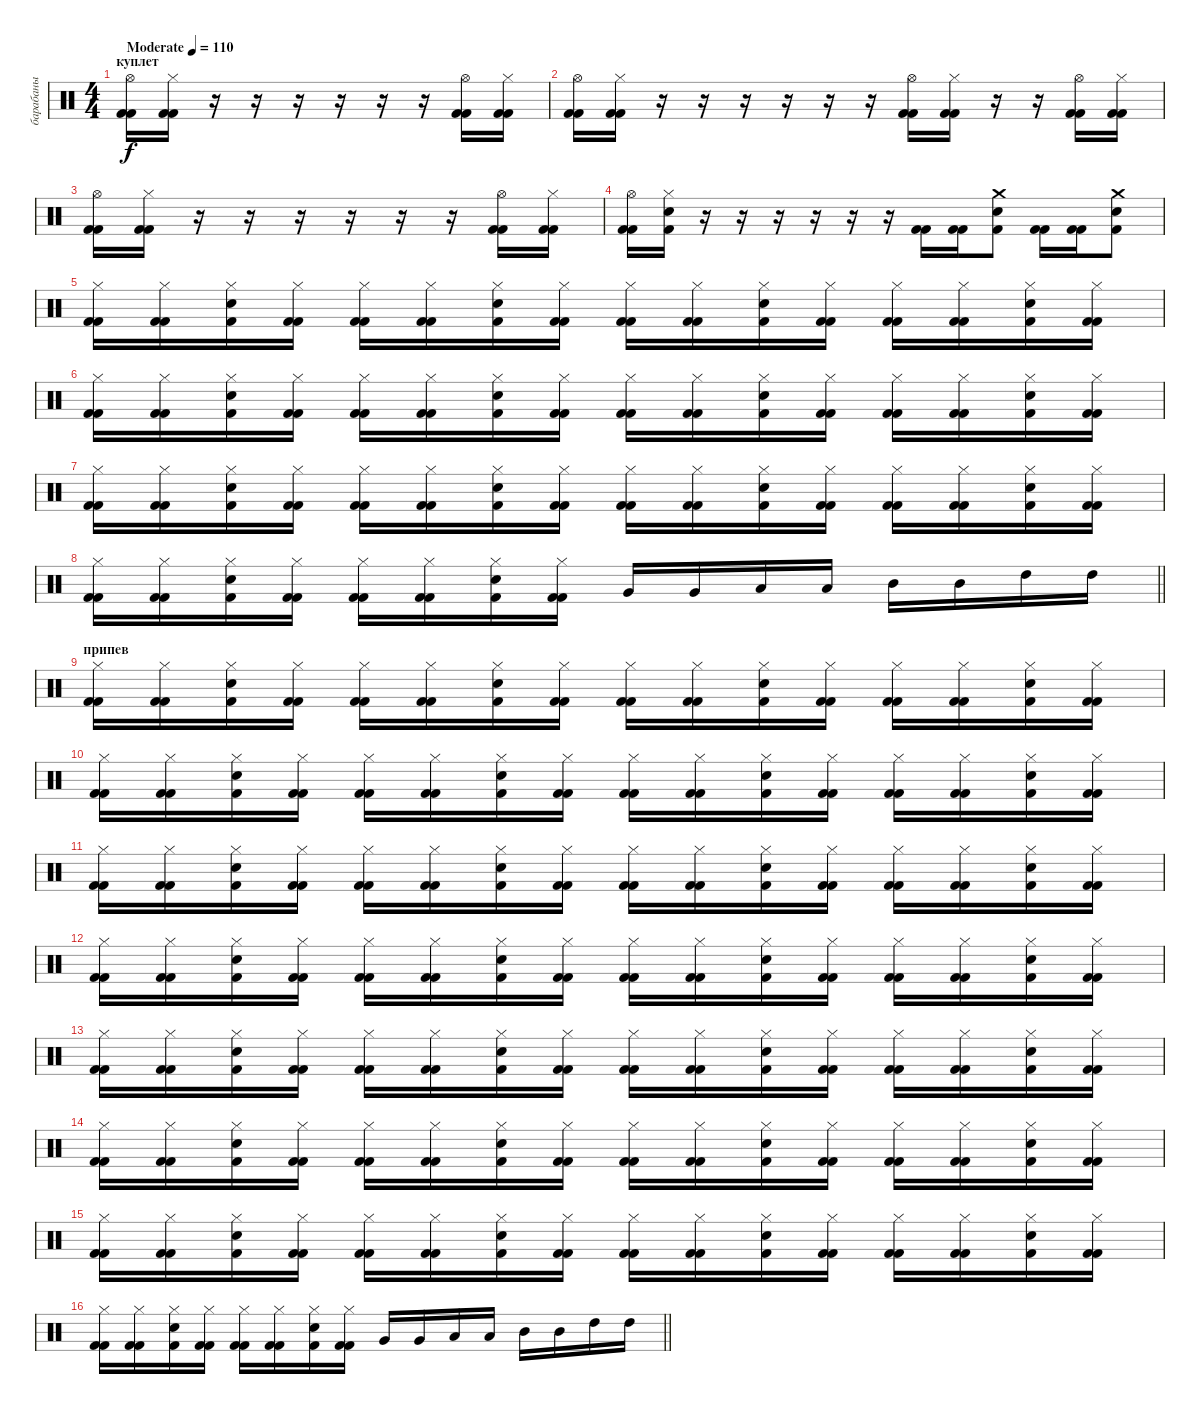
\track ("барабаны" "барабаны") {instrument percussion}
\staff {score}
\articulation defaults
\ts (4 4)
\section ("" "куплет")
\tempo (110 "Moderate")
\clef neutral
\ks c
("Hi-Hat (open)" "Kick (hit) 2" "Kick (hit) 2").16{dy f} ("Hi-Hat (closed)" "Kick (hit) 2" "Kick (hit) 2").16 r.16 r.16 r.16 r.16 r.16 r.16 ("Hi-Hat (open)" "Kick (hit) 2" "Kick (hit) 2").16 ("Hi-Hat (closed)" "Kick (hit) 2" "Kick (hit) 2").16 |
("Hi-Hat (open)" "Kick (hit) 2" "Kick (hit) 2").16 ("Hi-Hat (closed)" "Kick (hit) 2" "Kick (hit) 2").16 r.16 r.16 r.16 r.16 r.16 r.16 ("Hi-Hat (open)" "Kick (hit) 2" "Kick (hit) 2").16 ("Hi-Hat (closed)" "Kick (hit) 2" "Kick (hit) 2").16 r.16 r.16 ("Hi-Hat (open)" "Kick (hit) 2" "Kick (hit) 2").16 ("Hi-Hat (closed)" "Kick (hit) 2" "Kick (hit) 2").16 |
("Hi-Hat (open)" "Kick (hit) 2" "Kick (hit) 2").16 ("Hi-Hat (closed)" "Kick (hit) 2" "Kick (hit) 2").16 r.16 r.16 r.16 r.16 r.16 r.16 ("Hi-Hat (open)" "Kick (hit) 2" "Kick (hit) 2").16 ("Hi-Hat (closed)" "Kick (hit) 2" "Kick (hit) 2").16 |
("Hi-Hat (open)" "Kick (hit) 2" "Kick (hit) 2").16 ("Hi-Hat (closed)" "Kick (hit) 2" "Snare (hit) 2").16 r.16 r.16 r.16 r.16 r.16 r.16 ("Kick (hit) 2" "Kick (hit) 2").16 ("Kick (hit) 2" "Kick (hit) 2").16 ("Crash medium (hit)" "Snare (hit) 2" "Kick (hit) 2").8 ("Kick (hit) 2" "Kick (hit) 2").16 ("Kick (hit) 2" "Kick (hit) 2").16 ("Crash medium (hit)" "Snare (hit) 2" "Kick (hit) 2").8 |
("Hi-Hat (closed)" "Kick (hit) 2" "Kick (hit) 2").16 ("Hi-Hat (closed)" "Kick (hit) 2" "Kick (hit) 2").16 ("Hi-Hat (closed)" "Snare (hit) 2" "Kick (hit) 2").16 ("Hi-Hat (closed)" "Kick (hit) 2" "Kick (hit) 2").16 ("Hi-Hat (closed)" "Kick (hit) 2" "Kick (hit) 2").16 ("Hi-Hat (closed)" "Kick (hit) 2" "Kick (hit) 2").16 ("Hi-Hat (closed)" "Snare (hit) 2" "Kick (hit) 2").16 ("Hi-Hat (closed)" "Kick (hit) 2" "Kick (hit) 2").16 ("Hi-Hat (closed)" "Kick (hit) 2" "Kick (hit) 2").16 ("Hi-Hat (closed)" "Kick (hit) 2" "Kick (hit) 2").16 ("Hi-Hat (closed)" "Snare (hit) 2" "Kick (hit) 2").16 ("Hi-Hat (closed)" "Kick (hit) 2" "Kick (hit) 2").16 ("Hi-Hat (closed)" "Kick (hit) 2" "Kick (hit) 2").16 ("Hi-Hat (closed)" "Kick (hit) 2" "Kick (hit) 2").16 ("Hi-Hat (closed)" "Snare (hit) 2" "Kick (hit) 2").16 ("Hi-Hat (closed)" "Kick (hit) 2" "Kick (hit) 2").16 |
("Hi-Hat (closed)" "Kick (hit) 2" "Kick (hit) 2").16 ("Hi-Hat (closed)" "Kick (hit) 2" "Kick (hit) 2").16 ("Hi-Hat (closed)" "Snare (hit) 2" "Kick (hit) 2").16 ("Hi-Hat (closed)" "Kick (hit) 2" "Kick (hit) 2").16 ("Hi-Hat (closed)" "Kick (hit) 2" "Kick (hit) 2").16 ("Hi-Hat (closed)" "Kick (hit) 2" "Kick (hit) 2").16 ("Hi-Hat (closed)" "Snare (hit) 2" "Kick (hit) 2").16 ("Hi-Hat (closed)" "Kick (hit) 2" "Kick (hit) 2").16 ("Hi-Hat (closed)" "Kick (hit) 2" "Kick (hit) 2").16 ("Hi-Hat (closed)" "Kick (hit) 2" "Kick (hit) 2").16 ("Hi-Hat (closed)" "Snare (hit) 2" "Kick (hit) 2").16 ("Hi-Hat (closed)" "Kick (hit) 2" "Kick (hit) 2").16 ("Hi-Hat (closed)" "Kick (hit) 2" "Kick (hit) 2").16 ("Hi-Hat (closed)" "Kick (hit) 2" "Kick (hit) 2").16 ("Hi-Hat (closed)" "Snare (hit) 2" "Kick (hit) 2").16 ("Hi-Hat (closed)" "Kick (hit) 2" "Kick (hit) 2").16 |
("Hi-Hat (closed)" "Kick (hit) 2" "Kick (hit) 2").16 ("Hi-Hat (closed)" "Kick (hit) 2" "Kick (hit) 2").16 ("Hi-Hat (closed)" "Snare (hit) 2" "Kick (hit) 2").16 ("Hi-Hat (closed)" "Kick (hit) 2" "Kick (hit) 2").16 ("Hi-Hat (closed)" "Kick (hit) 2" "Kick (hit) 2").16 ("Hi-Hat (closed)" "Kick (hit) 2" "Kick (hit) 2").16 ("Hi-Hat (closed)" "Snare (hit) 2" "Kick (hit) 2").16 ("Hi-Hat (closed)" "Kick (hit) 2" "Kick (hit) 2").16 ("Hi-Hat (closed)" "Kick (hit) 2" "Kick (hit) 2").16 ("Hi-Hat (closed)" "Kick (hit) 2" "Kick (hit) 2").16 ("Hi-Hat (closed)" "Snare (hit) 2" "Kick (hit) 2").16 ("Hi-Hat (closed)" "Kick (hit) 2" "Kick (hit) 2").16 ("Hi-Hat (closed)" "Kick (hit) 2" "Kick (hit) 2").16 ("Hi-Hat (closed)" "Kick (hit) 2" "Kick (hit) 2").16 ("Hi-Hat (closed)" "Snare (hit) 2" "Kick (hit) 2").16 ("Hi-Hat (closed)" "Kick (hit) 2" "Kick (hit) 2").16 |
\barLineRight lightlight
("Hi-Hat (closed)" "Kick (hit) 2" "Kick (hit) 2").16 ("Hi-Hat (closed)" "Kick (hit) 2" "Kick (hit) 2").16 ("Hi-Hat (closed)" "Snare (hit) 2" "Kick (hit) 2").16 ("Hi-Hat (closed)" "Kick (hit) 2" "Kick (hit) 2").16 ("Hi-Hat (closed)" "Kick (hit) 2" "Kick (hit) 2").16 ("Hi-Hat (closed)" "Kick (hit) 2" "Kick (hit) 2").16 ("Hi-Hat (closed)" "Snare (hit) 2" "Kick (hit) 2").16 ("Hi-Hat (closed)" "Kick (hit) 2" "Kick (hit) 2").16 "Very Low Tom (hit)".16 "Very Low Tom (hit)".16 "Low Tom (hit)".16 "Low Tom (hit)".16 "Mid Tom (hit)".16 "Mid Tom (hit)".16 "High Tom (hit)".16 "High Tom (hit)".16 |
\section ("" "припев")
("Hi-Hat (closed)" "Kick (hit) 2" "Kick (hit) 2").16 ("Hi-Hat (closed)" "Kick (hit) 2" "Kick (hit) 2").16 ("Hi-Hat (closed)" "Snare (hit) 2" "Kick (hit) 2").16 ("Hi-Hat (closed)" "Kick (hit) 2" "Kick (hit) 2").16 ("Hi-Hat (closed)" "Kick (hit) 2" "Kick (hit) 2").16 ("Hi-Hat (closed)" "Kick (hit) 2" "Kick (hit) 2").16 ("Hi-Hat (closed)" "Snare (hit) 2" "Kick (hit) 2").16 ("Hi-Hat (closed)" "Kick (hit) 2" "Kick (hit) 2").16 ("Hi-Hat (closed)" "Kick (hit) 2" "Kick (hit) 2").16 ("Hi-Hat (closed)" "Kick (hit) 2" "Kick (hit) 2").16 ("Hi-Hat (closed)" "Snare (hit) 2" "Kick (hit) 2").16 ("Hi-Hat (closed)" "Kick (hit) 2" "Kick (hit) 2").16 ("Hi-Hat (closed)" "Kick (hit) 2" "Kick (hit) 2").16 ("Hi-Hat (closed)" "Kick (hit) 2" "Kick (hit) 2").16 ("Hi-Hat (closed)" "Snare (hit) 2" "Kick (hit) 2").16 ("Hi-Hat (closed)" "Kick (hit) 2" "Kick (hit) 2").16 |
("Hi-Hat (closed)" "Kick (hit) 2" "Kick (hit) 2").16 ("Hi-Hat (closed)" "Kick (hit) 2" "Kick (hit) 2").16 ("Hi-Hat (closed)" "Snare (hit) 2" "Kick (hit) 2").16 ("Hi-Hat (closed)" "Kick (hit) 2" "Kick (hit) 2").16 ("Hi-Hat (closed)" "Kick (hit) 2" "Kick (hit) 2").16 ("Hi-Hat (closed)" "Kick (hit) 2" "Kick (hit) 2").16 ("Hi-Hat (closed)" "Snare (hit) 2" "Kick (hit) 2").16 ("Hi-Hat (closed)" "Kick (hit) 2" "Kick (hit) 2").16 ("Hi-Hat (closed)" "Kick (hit) 2" "Kick (hit) 2").16 ("Hi-Hat (closed)" "Kick (hit) 2" "Kick (hit) 2").16 ("Hi-Hat (closed)" "Snare (hit) 2" "Kick (hit) 2").16 ("Hi-Hat (closed)" "Kick (hit) 2" "Kick (hit) 2").16 ("Hi-Hat (closed)" "Kick (hit) 2" "Kick (hit) 2").16 ("Hi-Hat (closed)" "Kick (hit) 2" "Kick (hit) 2").16 ("Hi-Hat (closed)" "Snare (hit) 2" "Kick (hit) 2").16 ("Hi-Hat (closed)" "Kick (hit) 2" "Kick (hit) 2").16 |
("Hi-Hat (closed)" "Kick (hit) 2" "Kick (hit) 2").16 ("Hi-Hat (closed)" "Kick (hit) 2" "Kick (hit) 2").16 ("Hi-Hat (closed)" "Snare (hit) 2" "Kick (hit) 2").16 ("Hi-Hat (closed)" "Kick (hit) 2" "Kick (hit) 2").16 ("Hi-Hat (closed)" "Kick (hit) 2" "Kick (hit) 2").16 ("Hi-Hat (closed)" "Kick (hit) 2" "Kick (hit) 2").16 ("Hi-Hat (closed)" "Snare (hit) 2" "Kick (hit) 2").16 ("Hi-Hat (closed)" "Kick (hit) 2" "Kick (hit) 2").16 ("Hi-Hat (closed)" "Kick (hit) 2" "Kick (hit) 2").16 ("Hi-Hat (closed)" "Kick (hit) 2" "Kick (hit) 2").16 ("Hi-Hat (closed)" "Snare (hit) 2" "Kick (hit) 2").16 ("Hi-Hat (closed)" "Kick (hit) 2" "Kick (hit) 2").16 ("Hi-Hat (closed)" "Kick (hit) 2" "Kick (hit) 2").16 ("Hi-Hat (closed)" "Kick (hit) 2" "Kick (hit) 2").16 ("Hi-Hat (closed)" "Snare (hit) 2" "Kick (hit) 2").16 ("Hi-Hat (closed)" "Kick (hit) 2" "Kick (hit) 2").16 |
("Hi-Hat (closed)" "Kick (hit) 2" "Kick (hit) 2").16 ("Hi-Hat (closed)" "Kick (hit) 2" "Kick (hit) 2").16 ("Hi-Hat (closed)" "Snare (hit) 2" "Kick (hit) 2").16 ("Hi-Hat (closed)" "Kick (hit) 2" "Kick (hit) 2").16 ("Hi-Hat (closed)" "Kick (hit) 2" "Kick (hit) 2").16 ("Hi-Hat (closed)" "Kick (hit) 2" "Kick (hit) 2").16 ("Hi-Hat (closed)" "Snare (hit) 2" "Kick (hit) 2").16 ("Hi-Hat (closed)" "Kick (hit) 2" "Kick (hit) 2").16 ("Hi-Hat (closed)" "Kick (hit) 2" "Kick (hit) 2").16 ("Hi-Hat (closed)" "Kick (hit) 2" "Kick (hit) 2").16 ("Hi-Hat (closed)" "Snare (hit) 2" "Kick (hit) 2").16 ("Hi-Hat (closed)" "Kick (hit) 2" "Kick (hit) 2").16 ("Hi-Hat (closed)" "Kick (hit) 2" "Kick (hit) 2").16 ("Hi-Hat (closed)" "Kick (hit) 2" "Kick (hit) 2").16 ("Hi-Hat (closed)" "Snare (hit) 2" "Kick (hit) 2").16 ("Hi-Hat (closed)" "Kick (hit) 2" "Kick (hit) 2").16 |
("Hi-Hat (closed)" "Kick (hit) 2" "Kick (hit) 2").16 ("Hi-Hat (closed)" "Kick (hit) 2" "Kick (hit) 2").16 ("Hi-Hat (closed)" "Snare (hit) 2" "Kick (hit) 2").16 ("Hi-Hat (closed)" "Kick (hit) 2" "Kick (hit) 2").16 ("Hi-Hat (closed)" "Kick (hit) 2" "Kick (hit) 2").16 ("Hi-Hat (closed)" "Kick (hit) 2" "Kick (hit) 2").16 ("Hi-Hat (closed)" "Snare (hit) 2" "Kick (hit) 2").16 ("Hi-Hat (closed)" "Kick (hit) 2" "Kick (hit) 2").16 ("Hi-Hat (closed)" "Kick (hit) 2" "Kick (hit) 2").16 ("Hi-Hat (closed)" "Kick (hit) 2" "Kick (hit) 2").16 ("Hi-Hat (closed)" "Snare (hit) 2" "Kick (hit) 2").16 ("Hi-Hat (closed)" "Kick (hit) 2" "Kick (hit) 2").16 ("Hi-Hat (closed)" "Kick (hit) 2" "Kick (hit) 2").16 ("Hi-Hat (closed)" "Kick (hit) 2" "Kick (hit) 2").16 ("Hi-Hat (closed)" "Snare (hit) 2" "Kick (hit) 2").16 ("Hi-Hat (closed)" "Kick (hit) 2" "Kick (hit) 2").16 |
("Hi-Hat (closed)" "Kick (hit) 2" "Kick (hit) 2").16 ("Hi-Hat (closed)" "Kick (hit) 2" "Kick (hit) 2").16 ("Hi-Hat (closed)" "Snare (hit) 2" "Kick (hit) 2").16 ("Hi-Hat (closed)" "Kick (hit) 2" "Kick (hit) 2").16 ("Hi-Hat (closed)" "Kick (hit) 2" "Kick (hit) 2").16 ("Hi-Hat (closed)" "Kick (hit) 2" "Kick (hit) 2").16 ("Hi-Hat (closed)" "Snare (hit) 2" "Kick (hit) 2").16 ("Hi-Hat (closed)" "Kick (hit) 2" "Kick (hit) 2").16 ("Hi-Hat (closed)" "Kick (hit) 2" "Kick (hit) 2").16 ("Hi-Hat (closed)" "Kick (hit) 2" "Kick (hit) 2").16 ("Hi-Hat (closed)" "Snare (hit) 2" "Kick (hit) 2").16 ("Hi-Hat (closed)" "Kick (hit) 2" "Kick (hit) 2").16 ("Hi-Hat (closed)" "Kick (hit) 2" "Kick (hit) 2").16 ("Hi-Hat (closed)" "Kick (hit) 2" "Kick (hit) 2").16 ("Hi-Hat (closed)" "Snare (hit) 2" "Kick (hit) 2").16 ("Hi-Hat (closed)" "Kick (hit) 2" "Kick (hit) 2").16 |
("Hi-Hat (closed)" "Kick (hit) 2" "Kick (hit) 2").16 ("Hi-Hat (closed)" "Kick (hit) 2" "Kick (hit) 2").16 ("Hi-Hat (closed)" "Snare (hit) 2" "Kick (hit) 2").16 ("Hi-Hat (closed)" "Kick (hit) 2" "Kick (hit) 2").16 ("Hi-Hat (closed)" "Kick (hit) 2" "Kick (hit) 2").16 ("Hi-Hat (closed)" "Kick (hit) 2" "Kick (hit) 2").16 ("Hi-Hat (closed)" "Snare (hit) 2" "Kick (hit) 2").16 ("Hi-Hat (closed)" "Kick (hit) 2" "Kick (hit) 2").16 ("Hi-Hat (closed)" "Kick (hit) 2" "Kick (hit) 2").16 ("Hi-Hat (closed)" "Kick (hit) 2" "Kick (hit) 2").16 ("Hi-Hat (closed)" "Snare (hit) 2" "Kick (hit) 2").16 ("Hi-Hat (closed)" "Kick (hit) 2" "Kick (hit) 2").16 ("Hi-Hat (closed)" "Kick (hit) 2" "Kick (hit) 2").16 ("Hi-Hat (closed)" "Kick (hit) 2" "Kick (hit) 2").16 ("Hi-Hat (closed)" "Snare (hit) 2" "Kick (hit) 2").16 ("Hi-Hat (closed)" "Kick (hit) 2" "Kick (hit) 2").16 |
\barLineRight lightlight
("Hi-Hat (closed)" "Kick (hit) 2" "Kick (hit) 2").16 ("Hi-Hat (closed)" "Kick (hit) 2" "Kick (hit) 2").16 ("Hi-Hat (closed)" "Snare (hit) 2" "Kick (hit) 2").16 ("Hi-Hat (closed)" "Kick (hit) 2" "Kick (hit) 2").16 ("Hi-Hat (closed)" "Kick (hit) 2" "Kick (hit) 2").16 ("Hi-Hat (closed)" "Kick (hit) 2" "Kick (hit) 2").16 ("Hi-Hat (closed)" "Snare (hit) 2" "Kick (hit) 2").16 ("Hi-Hat (closed)" "Kick (hit) 2" "Kick (hit) 2").16 "Very Low Tom (hit)".16 "Very Low Tom (hit)".16 "Low Tom (hit)".16 "Low Tom (hit)".16 "Mid Tom (hit)".16 "Mid Tom (hit)".16 "High Tom (hit)".16 "High Tom (hit)".16
